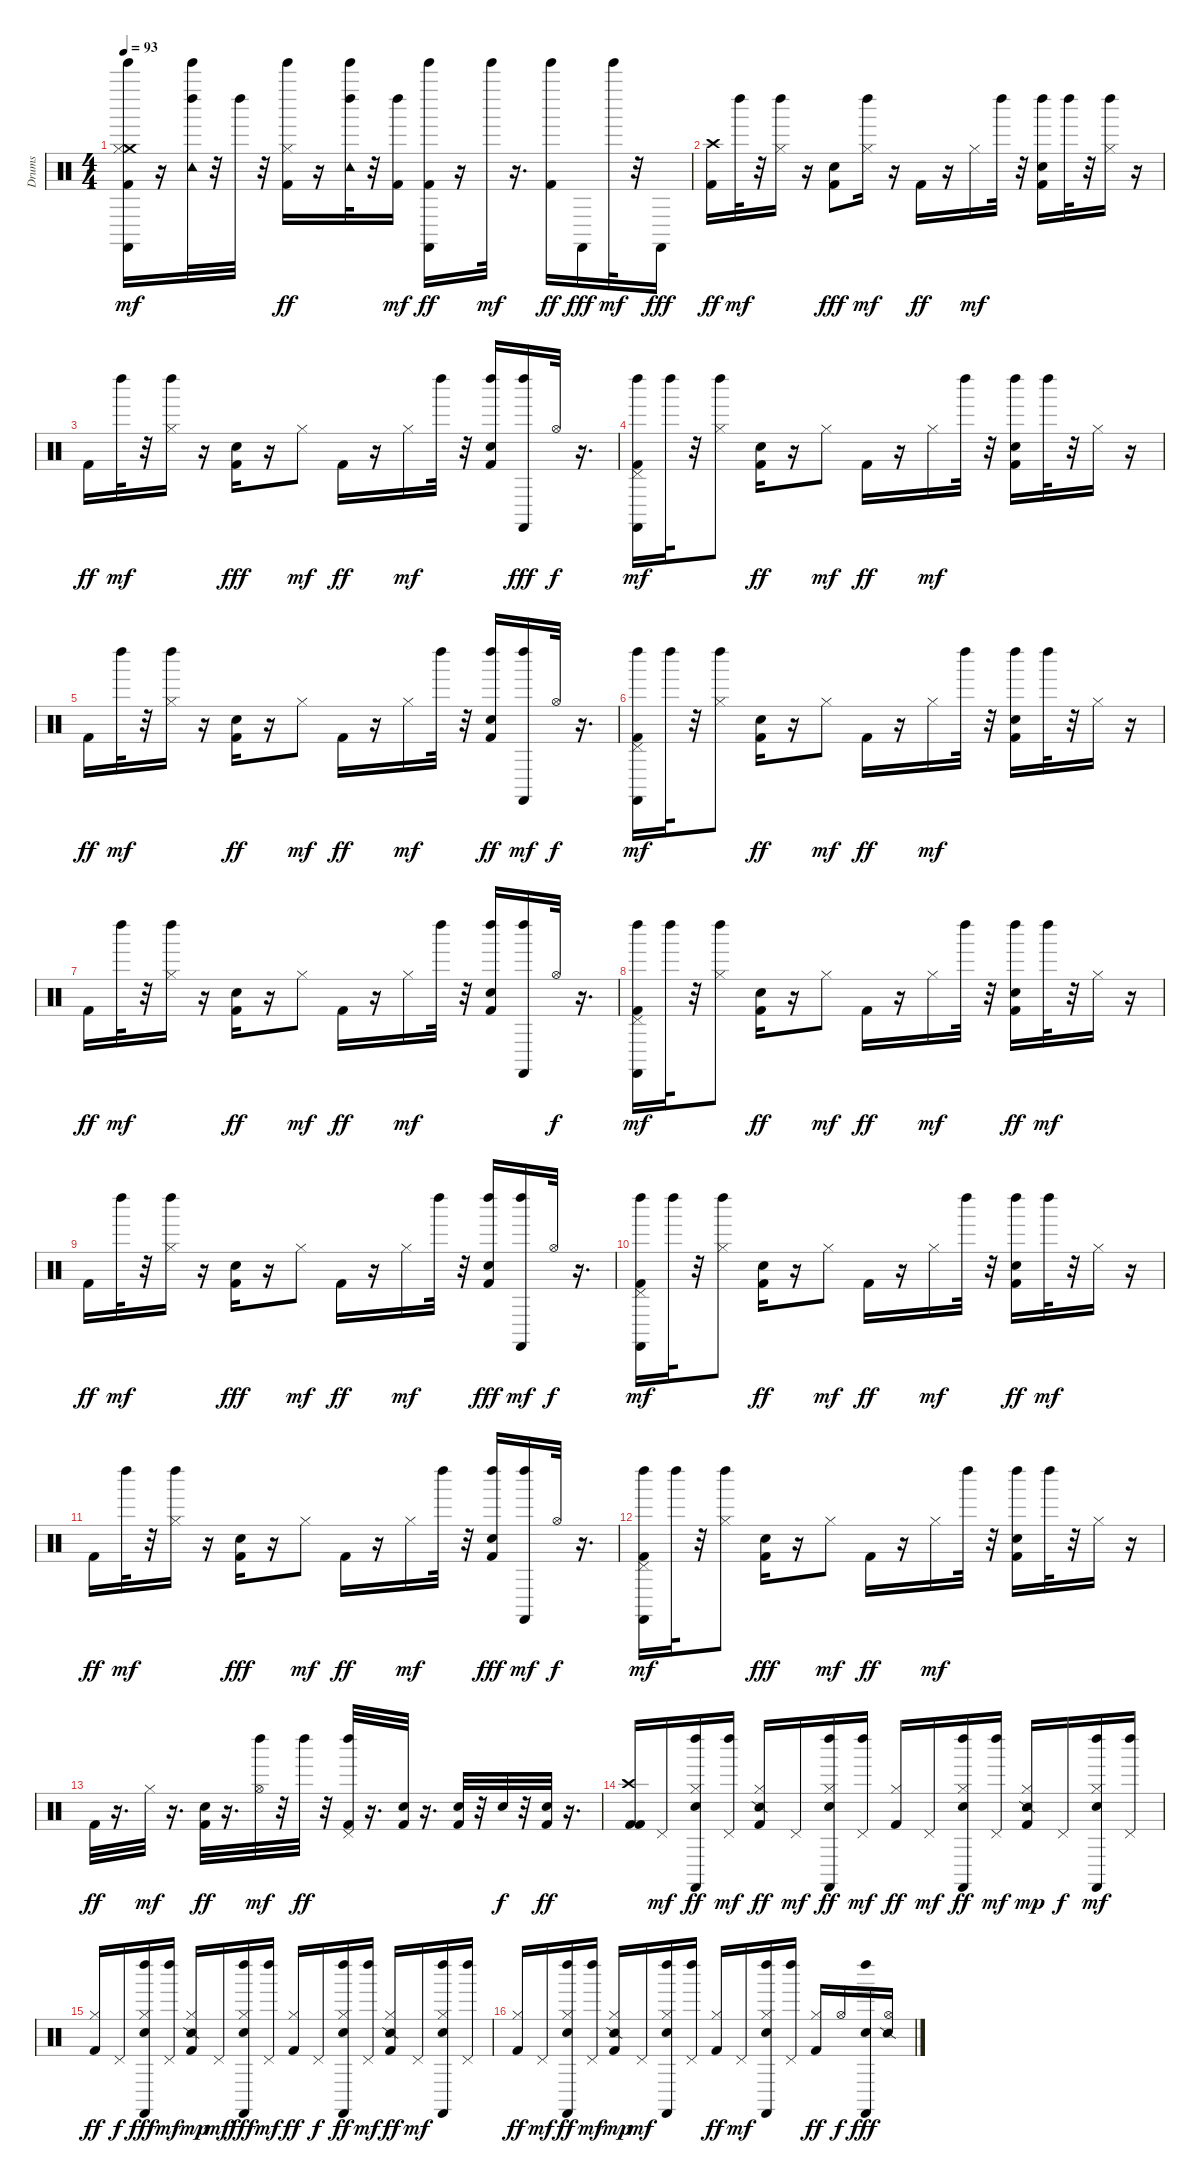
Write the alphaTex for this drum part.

\track ("Drums" "Drums") {instrument percussion}
\staff {score}
\articulation defaults
\ts (4 4)
\tempo 93
\clef neutral
\ks c
("Kick (hit) 2" "Castanets (hit)" "Crash medium (hit)" "Tinkle Bell (hit)" "Hi-Hat (closed)").16{dy mf} r.16 ("Tambourine (hit)" "Tinkle Bell (hit)" "Left Maraca (hit)").32 r.32 "Left Maraca (hit)".32 r.32 ("Hi-Hat (closed)" "Tinkle Bell (hit)" "Kick (hit) 2").16{dy ff} r.16 ("Tinkle Bell (hit)" "Left Maraca (hit)" "Tambourine (hit)").32 r.32 ("Kick (hit) 2" "Left Maraca (hit)").16{dy mf} ("Tinkle Bell (hit)" "Castanets (hit)" "Kick (hit) 2").16{dy ff} r.16 "Tinkle Bell (hit)".32{dy mf} r.16{d} ("Tinkle Bell (hit)" "Kick (hit) 2").16{dy ff} "Castanets (hit)".16{dy fff} "Tinkle Bell (hit)".32{dy mf} r.32 "Castanets (hit)".16{dy fff} |
("Crash high (hit)" "Kick (hit) 2").16{dy ff} "Left Maraca (hit)".32{dy mf} r.32 ("Hi-Hat (closed)" "Left Maraca (hit)").16 r.16 ("Kick (hit) 2" "Electric Snare (hit)").8{dy fff} ("Hi-Hat (closed)" "Left Maraca (hit)").16{dy mf} r.16 "Kick (hit) 2".16{dy ff} r.16 "Hi-Hat (closed)".16{dy mf} "Left Maraca (hit)".32 r.32 ("Electric Snare (hit)" "Kick (hit) 2" "Left Maraca (hit)").16 "Left Maraca (hit)".32 r.32 ("Left Maraca (hit)" "Hi-Hat (closed)").16 r.16 |
"Kick (hit) 2".16{dy ff} "Left Maraca (hit)".32{dy mf} r.32 ("Left Maraca (hit)" "Hi-Hat (closed)").16 r.16 ("Kick (hit) 2" "Electric Snare (hit)").16{dy fff} r.16 "Hi-Hat (closed)".8{dy mf} "Kick (hit) 2".16{dy ff} r.16 "Hi-Hat (closed)".16{dy mf} "Left Maraca (hit)".32 r.32 ("Electric Snare (hit)" "Kick (hit) 2" "Left Maraca (hit)").16 ("Left Maraca (hit)" "Castanets (hit)").16{dy fff} "Hi-Hat (open)".32{dy f} r.16{d} |
("Kick (hit) 2" "Castanets (hit)" "Pedal Hi-Hat (hit)" "Left Maraca (hit)").16{dy mf} "Left Maraca (hit)".32 r.32 ("Hi-Hat (closed)" "Left Maraca (hit)").8 ("Electric Snare (hit)" "Kick (hit) 2").16{dy ff} r.16 "Hi-Hat (closed)".8{dy mf} "Kick (hit) 2".16{dy ff} r.16 "Hi-Hat (closed)".16{dy mf} "Left Maraca (hit)".32 r.32 ("Electric Snare (hit)" "Kick (hit) 2" "Left Maraca (hit)").16 "Left Maraca (hit)".32 r.32 "Hi-Hat (closed)".16 r.16 |
"Kick (hit) 2".16{dy ff} "Left Maraca (hit)".32{dy mf} r.32 ("Hi-Hat (closed)" "Left Maraca (hit)").16 r.16 ("Electric Snare (hit)" "Kick (hit) 2").16{dy ff} r.16 "Hi-Hat (closed)".8{dy mf} "Kick (hit) 2".16{dy ff} r.16 "Hi-Hat (closed)".16{dy mf} "Left Maraca (hit)".32 r.32 ("Left Maraca (hit)" "Electric Snare (hit)" "Kick (hit) 2").16{dy ff} ("Castanets (hit)" "Left Maraca (hit)").16{dy mf} "Hi-Hat (open)".32{dy f} r.16{d} |
("Kick (hit) 2" "Pedal Hi-Hat (hit)" "Castanets (hit)" "Left Maraca (hit)").16{dy mf} "Left Maraca (hit)".32 r.32 ("Hi-Hat (closed)" "Left Maraca (hit)").8 ("Electric Snare (hit)" "Kick (hit) 2").16{dy ff} r.16 "Hi-Hat (closed)".8{dy mf} "Kick (hit) 2".16{dy ff} r.16 "Hi-Hat (closed)".16{dy mf} "Left Maraca (hit)".32 r.32 ("Kick (hit) 2" "Electric Snare (hit)" "Left Maraca (hit)").16 "Left Maraca (hit)".32 r.32 "Hi-Hat (closed)".16 r.16 |
"Kick (hit) 2".16{dy ff} "Left Maraca (hit)".32{dy mf} r.32 ("Left Maraca (hit)" "Hi-Hat (closed)").16 r.16 ("Electric Snare (hit)" "Kick (hit) 2").16{dy ff} r.16 "Hi-Hat (closed)".8{dy mf} "Kick (hit) 2".16{dy ff} r.16 "Hi-Hat (closed)".16{dy mf} "Left Maraca (hit)".32 r.32 ("Electric Snare (hit)" "Kick (hit) 2" "Left Maraca (hit)").16 ("Castanets (hit)" "Left Maraca (hit)").16 "Hi-Hat (open)".32{dy f} r.16{d} |
("Castanets (hit)" "Pedal Hi-Hat (hit)" "Kick (hit) 2" "Left Maraca (hit)").16{dy mf} "Left Maraca (hit)".32 r.32 ("Hi-Hat (closed)" "Left Maraca (hit)").8 ("Electric Snare (hit)" "Kick (hit) 2").16{dy ff} r.16 "Hi-Hat (closed)".8{dy mf} "Kick (hit) 2".16{dy ff} r.16 "Hi-Hat (closed)".16{dy mf} "Left Maraca (hit)".32 r.32 ("Left Maraca (hit)" "Electric Snare (hit)" "Kick (hit) 2").16{dy ff} "Left Maraca (hit)".32{dy mf} r.32 "Hi-Hat (closed)".16 r.16 |
"Kick (hit) 2".16{dy ff} "Left Maraca (hit)".32{dy mf} r.32 ("Hi-Hat (closed)" "Left Maraca (hit)").16 r.16 ("Kick (hit) 2" "Electric Snare (hit)").16{dy fff} r.16 "Hi-Hat (closed)".8{dy mf} "Kick (hit) 2".16{dy ff} r.16 "Hi-Hat (closed)".16{dy mf} "Left Maraca (hit)".32 r.32 ("Kick (hit) 2" "Left Maraca (hit)" "Electric Snare (hit)").16{dy fff} ("Castanets (hit)" "Left Maraca (hit)").16{dy mf} "Hi-Hat (open)".32{dy f} r.16{d} |
("Kick (hit) 2" "Castanets (hit)" "Pedal Hi-Hat (hit)" "Left Maraca (hit)").16{dy mf} "Left Maraca (hit)".32 r.32 ("Hi-Hat (closed)" "Left Maraca (hit)").8 ("Electric Snare (hit)" "Kick (hit) 2").16{dy ff} r.16 "Hi-Hat (closed)".8{dy mf} "Kick (hit) 2".16{dy ff} r.16 "Hi-Hat (closed)".16{dy mf} "Left Maraca (hit)".32 r.32 ("Electric Snare (hit)" "Left Maraca (hit)" "Kick (hit) 2").16{dy ff} "Left Maraca (hit)".32{dy mf} r.32 "Hi-Hat (closed)".16 r.16 |
"Kick (hit) 2".16{dy ff} "Left Maraca (hit)".32{dy mf} r.32 ("Hi-Hat (closed)" "Left Maraca (hit)").16 r.16 ("Kick (hit) 2" "Electric Snare (hit)").16{dy fff} r.16 "Hi-Hat (closed)".8{dy mf} "Kick (hit) 2".16{dy ff} r.16 "Hi-Hat (closed)".16{dy mf} "Left Maraca (hit)".32 r.32 ("Left Maraca (hit)" "Kick (hit) 2" "Electric Snare (hit)").16{dy fff} ("Castanets (hit)" "Left Maraca (hit)").16{dy mf} "Hi-Hat (open)".32{dy f} r.16{d} |
("Castanets (hit)" "Pedal Hi-Hat (hit)" "Kick (hit) 2" "Left Maraca (hit)").16{dy mf} "Left Maraca (hit)".32 r.32 ("Hi-Hat (closed)" "Left Maraca (hit)").8 ("Kick (hit) 2" "Electric Snare (hit)").16{dy fff} r.16 "Hi-Hat (closed)".8{dy mf} "Kick (hit) 2".16{dy ff} r.16 "Hi-Hat (closed)".16{dy mf} "Left Maraca (hit)".32 r.32 ("Electric Snare (hit)" "Kick (hit) 2" "Left Maraca (hit)").16 "Left Maraca (hit)".32 r.32 "Hi-Hat (closed)".16 r.16 |
"Kick (hit) 2".32{dy ff} r.16{d} "Hi-Hat (closed)".32{dy mf} r.16{d} ("Electric Snare (hit)" "Kick (hit) 2").32{dy ff} r.16{d} ("Left Maraca (hit)" "Hi-Hat (open)").32{dy mf} r.32 "Left Maraca (hit)".32{dy ff} r.32 ("Left Maraca (hit)" "Kick (hit) 2" "Pedal Hi-Hat (hit)").32 r.16{d} ("Kick (hit) 2" "Snare (hit) 2").32 r.16{d} ("Electric Snare (hit)" "Kick (hit) 2").32 r.32 "Electric Snare (hit)".32{dy f} r.32 ("Snare (hit) 2" "Kick (hit) 2").32{dy ff} r.16{d} |
("Crash high (hit)" "Kick (hit) 2" "Kick (hit) 2").16 "Pedal Hi-Hat (hit)".16{dy mf} ("Left Maraca (hit)" "Castanets (hit)" "Snare (hit) 2" "Hi-Hat (closed)").16{dy ff} ("Left Maraca (hit)" "Pedal Hi-Hat (hit)").16{dy mf} ("Snare (side stick) 2" "Hi-Hat (closed)" "Kick (hit) 2").16{dy ff} "Pedal Hi-Hat (hit)".16{dy mf} ("Castanets (hit)" "Left Maraca (hit)" "Snare (hit) 2" "Hi-Hat (closed)").16{dy ff} ("Left Maraca (hit)" "Pedal Hi-Hat (hit)").16{dy mf} ("Hi-Hat (closed)" "Kick (hit) 2").16{dy ff} "Pedal Hi-Hat (hit)".16{dy mf} ("Castanets (hit)" "Snare (hit) 2" "Left Maraca (hit)" "Hi-Hat (closed)").16{dy ff} ("Left Maraca (hit)" "Pedal Hi-Hat (hit)").16{dy mf} ("Kick (hit) 2" "Snare (side stick) 2" "Hi-Hat (closed)").16{dy mp} "Pedal Hi-Hat (hit)".16{dy f} ("Hi-Hat (closed)" "Snare (hit) 2" "Castanets (hit)" "Left Maraca (hit)").16{dy mf} ("Pedal Hi-Hat (hit)" "Left Maraca (hit)").16 |
("Hi-Hat (closed)" "Kick (hit) 2").16{dy ff} "Pedal Hi-Hat (hit)".16{dy f} ("Snare (hit) 2" "Left Maraca (hit)" "Hi-Hat (closed)" "Castanets (hit)").16{dy fff} ("Pedal Hi-Hat (hit)" "Left Maraca (hit)").16{dy mf} ("Kick (hit) 2" "Hi-Hat (closed)" "Snare (side stick) 2").16{dy mp} "Pedal Hi-Hat (hit)".16{dy mf} ("Left Maraca (hit)" "Snare (hit) 2" "Hi-Hat (closed)" "Castanets (hit)").16{dy fff} ("Pedal Hi-Hat (hit)" "Left Maraca (hit)").16{dy mf} ("Hi-Hat (closed)" "Kick (hit) 2").16{dy ff} "Pedal Hi-Hat (hit)".16{dy f} ("Left Maraca (hit)" "Snare (hit) 2" "Castanets (hit)" "Hi-Hat (closed)").16{dy ff} ("Pedal Hi-Hat (hit)" "Left Maraca (hit)").16{dy mf} ("Snare (side stick) 2" "Hi-Hat (closed)" "Kick (hit) 2").16{dy ff} "Pedal Hi-Hat (hit)".16{dy mf} ("Castanets (hit)" "Snare (hit) 2" "Left Maraca (hit)" "Hi-Hat (closed)").16 ("Pedal Hi-Hat (hit)" "Left Maraca (hit)").16 |
("Kick (hit) 2" "Hi-Hat (closed)").16{dy ff} "Pedal Hi-Hat (hit)".16{dy mf} ("Hi-Hat (closed)" "Left Maraca (hit)" "Castanets (hit)" "Snare (hit) 2").16{dy ff} ("Pedal Hi-Hat (hit)" "Left Maraca (hit)").16{dy mf} ("Hi-Hat (closed)" "Kick (hit) 2" "Snare (side stick) 2").16{dy mp} "Pedal Hi-Hat (hit)".16{dy mf} ("Snare (hit) 2" "Castanets (hit)" "Left Maraca (hit)" "Hi-Hat (closed)").16 ("Left Maraca (hit)" "Pedal Hi-Hat (hit)").16 ("Hi-Hat (closed)" "Kick (hit) 2").16{dy ff} "Pedal Hi-Hat (hit)".16{dy mf} ("Hi-Hat (closed)" "Snare (hit) 2" "Castanets (hit)" "Left Maraca (hit)").16 ("Left Maraca (hit)" "Pedal Hi-Hat (hit)").16 ("Kick (hit) 2" "Hi-Hat (closed)").16{dy ff} "Hi-Hat (open)".16{dy f} ("Snare (hit) 2" "Left Maraca (hit)" "Castanets (hit)").16{dy fff} ("Snare (side stick) 2" "Hi-Hat (open)").16
